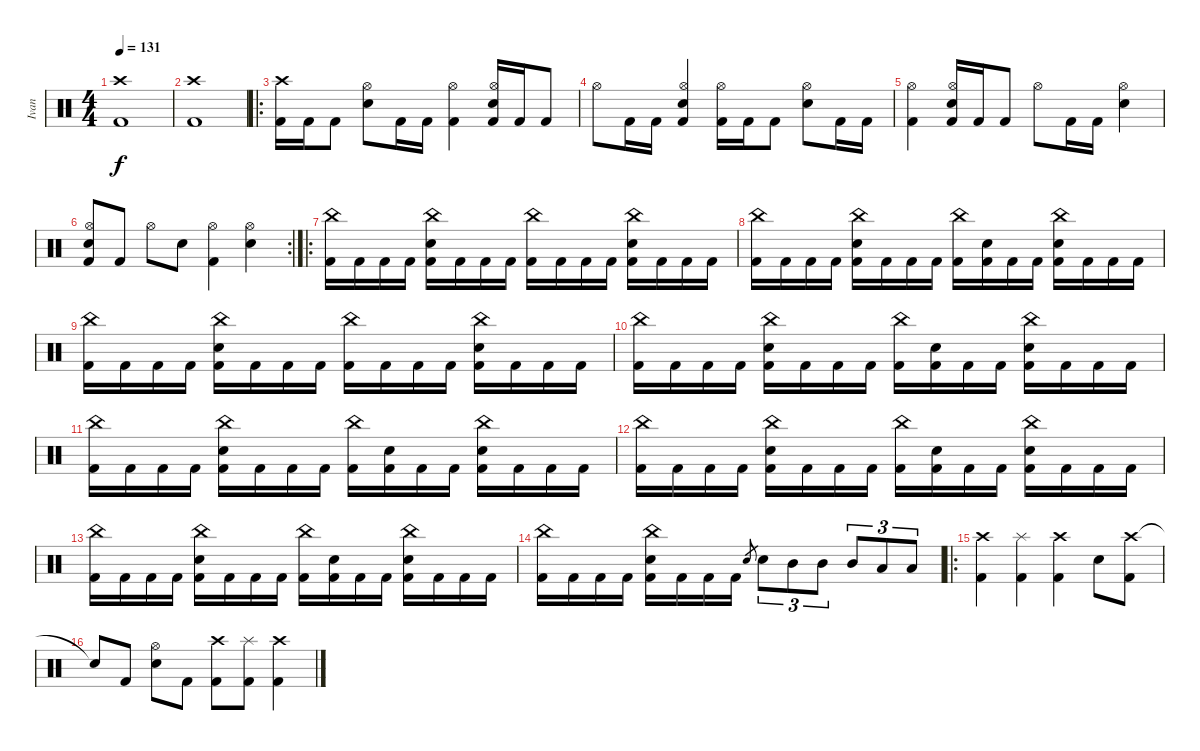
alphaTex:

\track ("Ivan" "Ivan") {instrument percussion}
\staff {score}
\articulation defaults
\ts (4 4)
\tempo 131
\clef neutral
\ks c
("Crash high (hit)" "Kick (hit) 2").1{dy f} |
("Crash high (hit)" "Kick (hit) 2").1 |
\ro
("Crash high (hit)" "Kick (hit) 2").16 "Kick (hit) 2".16 "Kick (hit) 2".8 ("Hi-Hat (open)" "Electric Snare (hit)").8 "Kick (hit) 2".16 "Kick (hit) 2".16 ("Hi-Hat (open)" "Kick (hit) 2").4 ("Hi-Hat (open)" "Electric Snare (hit)" "Kick (hit) 2").16 "Kick (hit) 2".16 "Kick (hit) 2".8 |
"Hi-Hat (open)".8 "Kick (hit) 2".16 "Kick (hit) 2".16 ("Hi-Hat (open)" "Electric Snare (hit)" "Kick (hit) 2").4 ("Hi-Hat (open)" "Kick (hit) 2").16 "Kick (hit) 2".16 "Kick (hit) 2".8 ("Hi-Hat (open)" "Electric Snare (hit)").8 "Kick (hit) 2".16 "Kick (hit) 2".16 |
("Hi-Hat (open)" "Kick (hit) 2").4 ("Hi-Hat (open)" "Electric Snare (hit)" "Kick (hit) 2").16 "Kick (hit) 2".16 "Kick (hit) 2".8 "Hi-Hat (open)".8 "Kick (hit) 2".16 "Kick (hit) 2".16 ("Hi-Hat (open)" "Electric Snare (hit)").4 |
\rc 2
("Hi-Hat (open)" "Electric Snare (hit)" "Kick (hit) 2").8 "Kick (hit) 2".8 "Hi-Hat (open)".8 "Electric Snare (hit)".8 ("Hi-Hat (open)" "Kick (hit) 2").4 ("Hi-Hat (open)" "Electric Snare (hit)").4 |
\ro
("China (hit)" "Kick (hit) 2").16 "Kick (hit) 2".16 "Kick (hit) 2".16 "Kick (hit) 2".16 ("China (hit)" "Electric Snare (hit)" "Kick (hit) 2").16 "Kick (hit) 2".16 "Kick (hit) 2".16 "Kick (hit) 2".16 ("China (hit)" "Kick (hit) 2").16 "Kick (hit) 2".16 "Kick (hit) 2".16 "Kick (hit) 2".16 ("China (hit)" "Electric Snare (hit)" "Kick (hit) 2").16 "Kick (hit) 2".16 "Kick (hit) 2".16 "Kick (hit) 2".16 |
("China (hit)" "Kick (hit) 2").16 "Kick (hit) 2".16 "Kick (hit) 2".16 "Kick (hit) 2".16 ("China (hit)" "Electric Snare (hit)" "Kick (hit) 2").16 "Kick (hit) 2".16 "Kick (hit) 2".16 "Kick (hit) 2".16 ("China (hit)" "Kick (hit) 2").16 ("Electric Snare (hit)" "Kick (hit) 2").16 "Kick (hit) 2".16 "Kick (hit) 2".16 ("China (hit)" "Electric Snare (hit)" "Kick (hit) 2").16 "Kick (hit) 2".16 "Kick (hit) 2".16 "Kick (hit) 2".16 |
("China (hit)" "Kick (hit) 2").16 "Kick (hit) 2".16 "Kick (hit) 2".16 "Kick (hit) 2".16 ("China (hit)" "Electric Snare (hit)" "Kick (hit) 2").16 "Kick (hit) 2".16 "Kick (hit) 2".16 "Kick (hit) 2".16 ("China (hit)" "Kick (hit) 2").16 "Kick (hit) 2".16 "Kick (hit) 2".16 "Kick (hit) 2".16 ("China (hit)" "Electric Snare (hit)" "Kick (hit) 2").16 "Kick (hit) 2".16 "Kick (hit) 2".16 "Kick (hit) 2".16 |
("China (hit)" "Kick (hit) 2").16 "Kick (hit) 2".16 "Kick (hit) 2".16 "Kick (hit) 2".16 ("China (hit)" "Electric Snare (hit)" "Kick (hit) 2").16 "Kick (hit) 2".16 "Kick (hit) 2".16 "Kick (hit) 2".16 ("China (hit)" "Kick (hit) 2").16 ("Electric Snare (hit)" "Kick (hit) 2").16 "Kick (hit) 2".16 "Kick (hit) 2".16 ("China (hit)" "Electric Snare (hit)" "Kick (hit) 2").16 "Kick (hit) 2".16 "Kick (hit) 2".16 "Kick (hit) 2".16 |
("China (hit)" "Kick (hit) 2").16 "Kick (hit) 2".16 "Kick (hit) 2".16 "Kick (hit) 2".16 ("China (hit)" "Electric Snare (hit)" "Kick (hit) 2").16 "Kick (hit) 2".16 "Kick (hit) 2".16 "Kick (hit) 2".16 ("China (hit)" "Kick (hit) 2").16 ("Electric Snare (hit)" "Kick (hit) 2").16 "Kick (hit) 2".16 "Kick (hit) 2".16 ("China (hit)" "Electric Snare (hit)" "Kick (hit) 2").16 "Kick (hit) 2".16 "Kick (hit) 2".16 "Kick (hit) 2".16 |
("China (hit)" "Kick (hit) 2").16 "Kick (hit) 2".16 "Kick (hit) 2".16 "Kick (hit) 2".16 ("China (hit)" "Electric Snare (hit)" "Kick (hit) 2").16 "Kick (hit) 2".16 "Kick (hit) 2".16 "Kick (hit) 2".16 ("China (hit)" "Kick (hit) 2").16 ("Electric Snare (hit)" "Kick (hit) 2").16 "Kick (hit) 2".16 "Kick (hit) 2".16 ("China (hit)" "Electric Snare (hit)" "Kick (hit) 2").16 "Kick (hit) 2".16 "Kick (hit) 2".16 "Kick (hit) 2".16 |
("China (hit)" "Kick (hit) 2").16 "Kick (hit) 2".16 "Kick (hit) 2".16 "Kick (hit) 2".16 ("China (hit)" "Electric Snare (hit)" "Kick (hit) 2").16 "Kick (hit) 2".16 "Kick (hit) 2".16 "Kick (hit) 2".16 ("China (hit)" "Kick (hit) 2").16 ("Electric Snare (hit)" "Kick (hit) 2").16 "Kick (hit) 2".16 "Kick (hit) 2".16 ("China (hit)" "Electric Snare (hit)" "Kick (hit) 2").16 "Kick (hit) 2".16 "Kick (hit) 2".16 "Kick (hit) 2".16 |
("China (hit)" "Kick (hit) 2").16 "Kick (hit) 2".16 "Kick (hit) 2".16 "Kick (hit) 2".16 ("China (hit)" "Electric Snare (hit)" "Kick (hit) 2").16 "Kick (hit) 2".16 "Kick (hit) 2".16 "Kick (hit) 2".16 "Electric Snare (hit)".8{gr} "Electric Snare (hit)".8{tu (3 2)} "Mid Tom (hit)".8{tu (3 2)} "Mid Tom (hit)".8{tu (3 2)} "Mid Tom (hit)".8{tu (3 2)} "Low Tom (hit)".8{tu (3 2)} "Low Tom (hit)".8{tu (3 2)} |
\ro
("Crash high (hit)" "Kick (hit) 2").4 ("Splash (hit)" "Kick (hit) 2").4 ("Crash high (hit)" "Kick (hit) 2").4 "Electric Snare (hit)".8 ("Crash high (hit)" "Kick (hit) 2").8 |
"Snare (hit)"{t}.8 "Kick (hit) 2".8 ("Hi-Hat (open)" "Electric Snare (hit)").8 "Kick (hit) 2".8 ("Crash high (hit)" "Kick (hit) 2").8 ("Splash (hit)" "Kick (hit) 2").8 ("Crash high (hit)" "Kick (hit) 2").4
